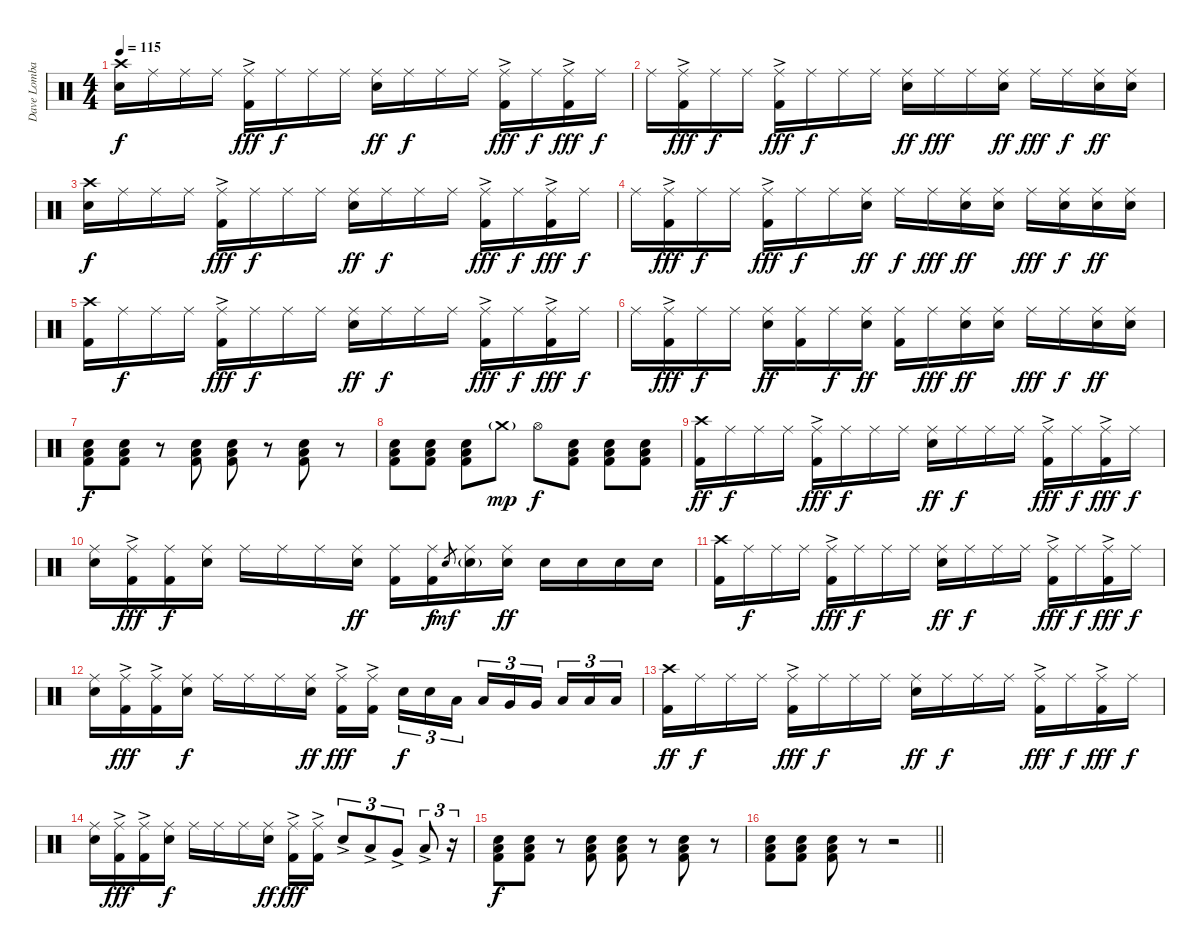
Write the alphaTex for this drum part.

\track ("Dave Lombardo" "Dave Lomba") {instrument percussion}
\staff {score}
\articulation defaults
\ts (4 4)
\tempo 115
\clef neutral
\ks c
("Crash high (hit)" "Snare (hit) 2").16{dy f} "Ride (middle)".16 "Ride (middle)".16 "Ride (middle)".16 ("Ride (middle)" "Kick (hit) 2"{ac}).16{dy fff} "Ride (middle)".16{dy f} "Ride (middle)".16 "Ride (middle)".16 ("Ride (middle)" "Snare (hit) 2").16{dy ff} "Ride (middle)".16{dy f} "Ride (middle)".16 "Ride (middle)".16 ("Ride (middle)" "Kick (hit) 2"{ac}).16{dy fff} "Ride (middle)".16{dy f} ("Ride (middle)" "Kick (hit) 2"{ac}).16{dy fff} "Ride (middle)".16{dy f} |
"Ride (middle)".16 ("Ride (middle)" "Kick (hit) 2"{ac}).16{dy fff} "Ride (middle)".16{dy f} "Ride (middle)".16 ("Ride (middle)" "Kick (hit) 2"{ac}).16{dy fff} "Ride (middle)".16{dy f} "Ride (middle)".16 "Ride (middle)".16 ("Ride (middle)" "Snare (hit) 2").16{dy ff} "Ride (middle)".16{dy fff} "Ride (middle)".16 ("Ride (middle)" "Snare (hit) 2").16{dy ff} "Ride (middle)".16{dy fff} "Ride (middle)".16{dy f} ("Ride (middle)" "Snare (hit) 2").16{dy ff} ("Ride (middle)" "Snare (hit) 2").16 |
("Crash high (hit)" "Snare (hit) 2").16{dy f} "Ride (middle)".16 "Ride (middle)".16 "Ride (middle)".16 ("Ride (middle)" "Kick (hit) 2"{ac}).16{dy fff} "Ride (middle)".16{dy f} "Ride (middle)".16 "Ride (middle)".16 ("Ride (middle)" "Snare (hit) 2").16{dy ff} "Ride (middle)".16{dy f} "Ride (middle)".16 "Ride (middle)".16 ("Ride (middle)" "Kick (hit) 2"{ac}).16{dy fff} "Ride (middle)".16{dy f} ("Ride (middle)" "Kick (hit) 2"{ac}).16{dy fff} "Ride (middle)".16{dy f} |
"Ride (middle)".16 ("Ride (middle)" "Kick (hit) 2"{ac}).16{dy fff} "Ride (middle)".16{dy f} "Ride (middle)".16 ("Ride (middle)" "Kick (hit) 2"{ac}).16{dy fff} "Ride (middle)".16{dy f} "Ride (middle)".16 ("Ride (middle)" "Snare (hit) 2").16{dy ff} "Ride (middle)".16{dy f} "Ride (middle)".16{dy fff} ("Ride (middle)" "Snare (hit) 2").16{dy ff} ("Ride (middle)" "Snare (hit) 2").16 "Ride (middle)".16{dy fff} ("Ride (middle)" "Snare (hit) 2").16{dy f} ("Ride (middle)" "Snare (hit) 2").16{dy ff} ("Ride (middle)" "Snare (hit) 2").16 |
("Crash high (hit)" "Kick (hit) 2").16 "Ride (middle)".16{dy f} "Ride (middle)".16 "Ride (middle)".16 ("Ride (middle)" "Kick (hit) 2"{ac}).16{dy fff} "Ride (middle)".16{dy f} "Ride (middle)".16 "Ride (middle)".16 ("Ride (middle)" "Snare (hit) 2").16{dy ff} "Ride (middle)".16{dy f} "Ride (middle)".16 "Ride (middle)".16 ("Ride (middle)" "Kick (hit) 2"{ac}).16{dy fff} "Ride (middle)".16{dy f} ("Ride (middle)" "Kick (hit) 2"{ac}).16{dy fff} "Ride (middle)".16{dy f} |
"Ride (middle)".16 ("Ride (middle)" "Kick (hit) 2"{ac}).16{dy fff} "Ride (middle)".16{dy f} "Ride (middle)".16 ("Ride (middle)" "Snare (hit) 2").16{dy ff} ("Ride (middle)" "Kick (hit) 2").16 "Ride (middle)".16{dy f} ("Ride (middle)" "Snare (hit) 2").16{dy ff} ("Ride (middle)" "Kick (hit) 2").16 "Ride (middle)".16{dy fff} ("Ride (middle)" "Snare (hit) 2").16{dy ff} ("Ride (middle)" "Snare (hit) 2").16 "Ride (middle)".16{dy fff} "Ride (middle)".16{dy f} ("Ride (middle)" "Snare (hit) 2").16{dy ff} ("Ride (middle)" "Snare (hit) 2").16 |
("Low Floor Tom (hit)" "Snare (hit) 2" "Kick (hit) 2").8{dy f} ("Low Floor Tom (hit)" "Snare (hit) 2" "Kick (hit) 2").8 r.8 ("Low Floor Tom (hit)" "Snare (hit) 2" "Kick (hit) 2").8 ("Low Floor Tom (hit)" "Snare (hit) 2" "Kick (hit) 2").8 r.8 ("Low Floor Tom (hit)" "Snare (hit) 2" "Kick (hit) 2").8 r.8 |
("Low Floor Tom (hit)" "Snare (hit) 2" "Kick (hit) 2").8 ("Low Floor Tom (hit)" "Snare (hit) 2" "Kick (hit) 2").8 ("Low Floor Tom (hit)" "Snare (hit) 2" "Kick (hit) 2").8 "Crash medium (hit)"{g}.8{dy mp balance 10} "Hi-Hat (open)".8{dy f balance 5} ("Low Floor Tom (hit)" "Snare (hit) 2" "Kick (hit) 2").8{balance 8} ("Low Floor Tom (hit)" "Snare (hit) 2" "Kick (hit) 2").8 ("Low Floor Tom (hit)" "Snare (hit) 2" "Kick (hit) 2").8 |
("Crash high (hit)" "Kick (hit) 2").16{dy ff} "Ride (middle)".16{dy f} "Ride (middle)".16 "Ride (middle)".16 ("Ride (middle)" "Kick (hit) 2"{ac}).16{dy fff} "Ride (middle)".16{dy f} "Ride (middle)".16 "Ride (middle)".16 ("Ride (middle)" "Snare (hit) 2").16{dy ff} "Ride (middle)".16{dy f} "Ride (middle)".16 "Ride (middle)".16 ("Ride (middle)" "Kick (hit) 2"{ac}).16{dy fff} "Ride (middle)".16{dy f} ("Ride (middle)" "Kick (hit) 2"{ac}).16{dy fff} "Ride (middle)".16{dy f} |
("Ride (middle)" "Snare (hit) 2").16 ("Ride (middle)" "Kick (hit) 2"{ac}).16{dy fff} ("Ride (middle)" "Kick (hit) 2").16{dy f} ("Ride (middle)" "Snare (hit) 2").16 "Ride (middle)".16 "Ride (middle)".16 "Ride (middle)".16 ("Ride (middle)" "Snare (hit) 2").16{dy ff} ("Ride (middle)" "Kick (hit) 2").16 ("Ride (middle)" "Kick (hit) 2").16{dy f} "Snare (hit) 2".8{gr dy mf} ("Ride (middle)" "Snare (hit) 2"{g}).16 ("Ride (middle)" "Snare (hit) 2").16{dy ff} "Snare (hit) 2".16 "Snare (hit) 2".16 "Snare (hit) 2".16 "Snare (hit) 2".16 |
("Crash high (hit)" "Kick (hit) 2").16 "Ride (middle)".16{dy f} "Ride (middle)".16 "Ride (middle)".16 ("Ride (middle)" "Kick (hit) 2"{ac}).16{dy fff} "Ride (middle)".16{dy f} "Ride (middle)".16 "Ride (middle)".16 ("Ride (middle)" "Snare (hit) 2").16{dy ff} "Ride (middle)".16{dy f} "Ride (middle)".16 "Ride (middle)".16 ("Ride (middle)" "Kick (hit) 2"{ac}).16{dy fff} "Ride (middle)".16{dy f} ("Ride (middle)" "Kick (hit) 2"{ac}).16{dy fff} "Ride (middle)".16{dy f} |
("Ride (middle)" "Snare (hit) 2").16 ("Ride (middle)" "Kick (hit) 2"{ac}).16{dy fff} ("Ride (middle)" "Kick (hit) 2"{ac}).16 ("Ride (middle)" "Snare (hit) 2").16{dy f} "Ride (middle)".16 "Ride (middle)".16 "Ride (middle)".16 ("Ride (middle)" "Snare (hit) 2").16{dy ff} ("Ride (middle)" "Kick (hit) 2"{ac}).16{dy fff} ("Ride (middle)" "Kick (hit) 2"{ac}).16{beam splitsecondary} "Snare (hit) 2".16{tu (3 2) dy f} "Snare (hit) 2".16{tu (3 2)} "Low Tom (hit)".16{tu (3 2)} "Low Tom (hit)".16{tu (3 2)} "Very Low Tom (hit)".16{tu (3 2)} "Very Low Tom (hit)".16{tu (3 2) beam splitsecondary} "Low Floor Tom (hit)".16{tu (3 2)} "Low Floor Tom (hit)".16{tu (3 2)} "Low Floor Tom (hit)".16{tu (3 2)} |
("Crash high (hit)" "Kick (hit) 2").16{dy ff} "Ride (middle)".16{dy f} "Ride (middle)".16 "Ride (middle)".16 ("Ride (middle)" "Kick (hit) 2"{ac}).16{dy fff} "Ride (middle)".16{dy f} "Ride (middle)".16 "Ride (middle)".16 ("Ride (middle)" "Snare (hit) 2").16{dy ff} "Ride (middle)".16{dy f} "Ride (middle)".16 "Ride (middle)".16 ("Ride (middle)" "Kick (hit) 2"{ac}).16{dy fff} "Ride (middle)".16{dy f} ("Ride (middle)" "Kick (hit) 2"{ac}).16{dy fff} "Ride (middle)".16{dy f} |
("Ride (middle)" "Snare (hit) 2").16 ("Ride (middle)" "Kick (hit) 2"{ac}).16{dy fff} ("Ride (middle)" "Kick (hit) 2"{ac}).16 ("Ride (middle)" "Snare (hit) 2").16{dy f} "Ride (middle)".16 "Ride (middle)".16 "Ride (middle)".16 ("Ride (middle)" "Snare (hit) 2").16{dy ff} ("Ride (middle)" "Kick (hit) 2"{ac}).16{dy fff} ("Ride (middle)" "Kick (hit) 2"{ac}).16 "Snare (hit) 2"{ac}.8{tu (3 2)} "Low Tom (hit)"{ac}.8{tu (3 2)} "Very Low Tom (hit)"{ac}.8{tu (3 2)} "Low Floor Tom (hit)"{ac}.8{tu (3 2)} r.16{tu (3 2)} |
("Low Floor Tom (hit)" "Snare (hit) 2" "Kick (hit) 2").8{dy f} ("Low Floor Tom (hit)" "Snare (hit) 2" "Kick (hit) 2").8 r.8 ("Low Floor Tom (hit)" "Snare (hit) 2" "Kick (hit) 2").8 ("Low Floor Tom (hit)" "Snare (hit) 2" "Kick (hit) 2").8 r.8 ("Low Floor Tom (hit)" "Snare (hit) 2" "Kick (hit) 2").8 r.8 |
\barLineRight lightlight
("Low Floor Tom (hit)" "Snare (hit) 2" "Kick (hit) 2").8 ("Low Floor Tom (hit)" "Snare (hit) 2" "Kick (hit) 2").8 ("Low Floor Tom (hit)" "Snare (hit) 2" "Kick (hit) 2").8 r.8 r.2
